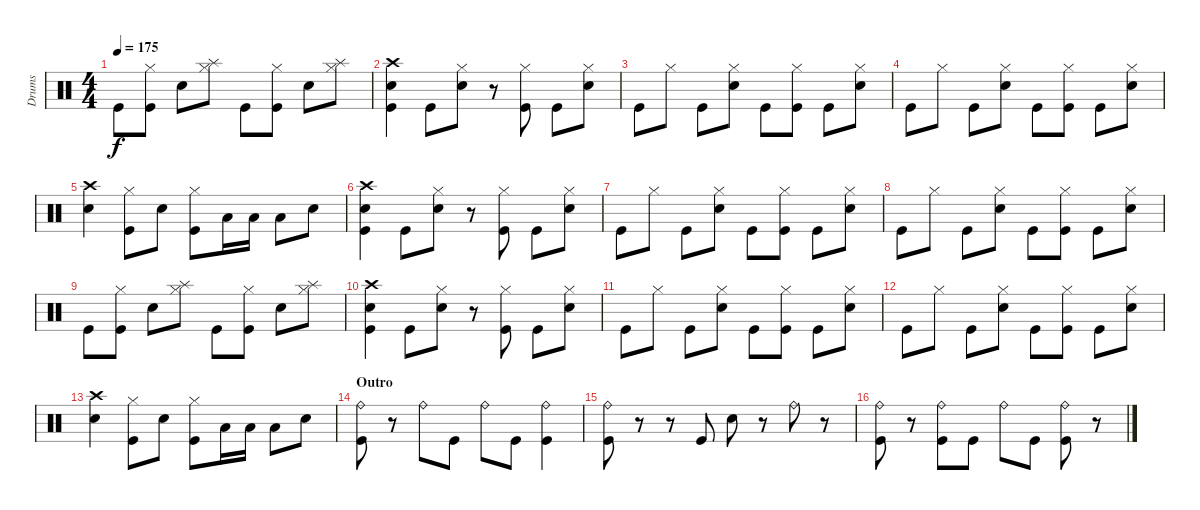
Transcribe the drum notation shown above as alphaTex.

\track ("Drums" "Drums") {instrument percussion}
\staff {score}
\articulation defaults
\ts (4 4)
\tempo 175
\clef neutral
\ks c "Kick (hit)".8{dy f}
("Hi-Hat (closed)" "Kick (hit)").8 "Electric Snare (hit)".8 ("Hi-Hat (closed)" "Splash (hit)").8 "Kick (hit)".8 ("Hi-Hat (closed)" "Kick (hit)").8 "Electric Snare (hit)".8 ("Hi-Hat (closed)" "Splash (hit)").8 |
("Crash high (hit)" "Electric Snare (hit)" "Kick (hit)").4 "Kick (hit)".8 ("Hi-Hat (closed)" "Electric Snare (hit)").8 r.8 ("Hi-Hat (closed)" "Kick (hit)").8 "Kick (hit)".8 ("Hi-Hat (closed)" "Electric Snare (hit)").8 |
"Kick (hit)".8 "Hi-Hat (closed)".8 "Kick (hit)".8 ("Hi-Hat (closed)" "Electric Snare (hit)").8 "Kick (hit)".8 ("Hi-Hat (closed)" "Kick (hit)").8 "Kick (hit)".8 ("Hi-Hat (closed)" "Electric Snare (hit)").8 |
"Kick (hit)".8 "Hi-Hat (closed)".8 "Kick (hit)".8 ("Hi-Hat (closed)" "Electric Snare (hit)").8 "Kick (hit)".8 ("Hi-Hat (closed)" "Kick (hit)").8 "Kick (hit)".8 ("Hi-Hat (closed)" "Electric Snare (hit)").8 |
("Crash high (hit)" "Electric Snare (hit)").4 ("Hi-Hat (closed)" "Kick (hit)").8 "Electric Snare (hit)".8 ("Hi-Hat (closed)" "Kick (hit)").8 "Low Tom (hit)".16 "Low Tom (hit)".16 "Low Tom (hit)".8 "Electric Snare (hit)".8 |
("Crash high (hit)" "Electric Snare (hit)" "Kick (hit)").4 "Kick (hit)".8 ("Hi-Hat (closed)" "Electric Snare (hit)").8 r.8 ("Hi-Hat (closed)" "Kick (hit)").8 "Kick (hit)".8 ("Hi-Hat (closed)" "Electric Snare (hit)").8 |
"Kick (hit)".8 "Hi-Hat (closed)".8 "Kick (hit)".8 ("Hi-Hat (closed)" "Electric Snare (hit)").8 "Kick (hit)".8 ("Hi-Hat (closed)" "Kick (hit)").8 "Kick (hit)".8 ("Hi-Hat (closed)" "Electric Snare (hit)").8 |
"Kick (hit)".8 "Hi-Hat (closed)".8 "Kick (hit)".8 ("Hi-Hat (closed)" "Electric Snare (hit)").8 "Kick (hit)".8 ("Hi-Hat (closed)" "Kick (hit)").8 "Kick (hit)".8 ("Hi-Hat (closed)" "Electric Snare (hit)").8 |
"Kick (hit)".8 ("Hi-Hat (closed)" "Kick (hit)").8 "Electric Snare (hit)".8 ("Hi-Hat (closed)" "Splash (hit)").8 "Kick (hit)".8 ("Hi-Hat (closed)" "Kick (hit)").8 "Electric Snare (hit)".8 ("Hi-Hat (closed)" "Splash (hit)").8 |
("Crash high (hit)" "Electric Snare (hit)" "Kick (hit)").4 "Kick (hit)".8 ("Hi-Hat (closed)" "Electric Snare (hit)").8 r.8 ("Hi-Hat (closed)" "Kick (hit)").8 "Kick (hit)".8 ("Hi-Hat (closed)" "Electric Snare (hit)").8 |
"Kick (hit)".8 "Hi-Hat (closed)".8 "Kick (hit)".8 ("Hi-Hat (closed)" "Electric Snare (hit)").8 "Kick (hit)".8 ("Hi-Hat (closed)" "Kick (hit)").8 "Kick (hit)".8 ("Hi-Hat (closed)" "Electric Snare (hit)").8 |
"Kick (hit)".8 "Hi-Hat (closed)".8 "Kick (hit)".8 ("Hi-Hat (closed)" "Electric Snare (hit)").8 "Kick (hit)".8 ("Hi-Hat (closed)" "Kick (hit)").8 "Kick (hit)".8 ("Hi-Hat (closed)" "Electric Snare (hit)").8 |
("Crash high (hit)" "Electric Snare (hit)").4 ("Hi-Hat (closed)" "Kick (hit)").8 "Electric Snare (hit)".8 ("Hi-Hat (closed)" "Kick (hit)").8 "Low Tom (hit)".16 "Low Tom (hit)".16 "Low Tom (hit)".8 "Electric Snare (hit)".8 |
\section ("" "Outro")
("Ride (bell)" "Kick (hit)").8 r.8 "Ride (bell)".8 "Kick (hit)".8 "Ride (bell)".8 "Kick (hit)".8 ("Ride (bell)" "Kick (hit)").4 |
("Ride (bell)" "Kick (hit)").8 r.8 r.8 "Kick (hit)".8 "Electric Snare (hit)".8 r.8 "Ride (bell)".8 r.8 |
("Ride (bell)" "Kick (hit)").8 r.8 ("Ride (bell)" "Kick (hit)").8 "Kick (hit)".8 "Ride (bell)".8 "Kick (hit)".8 ("Ride (bell)" "Kick (hit)").8 r.8
